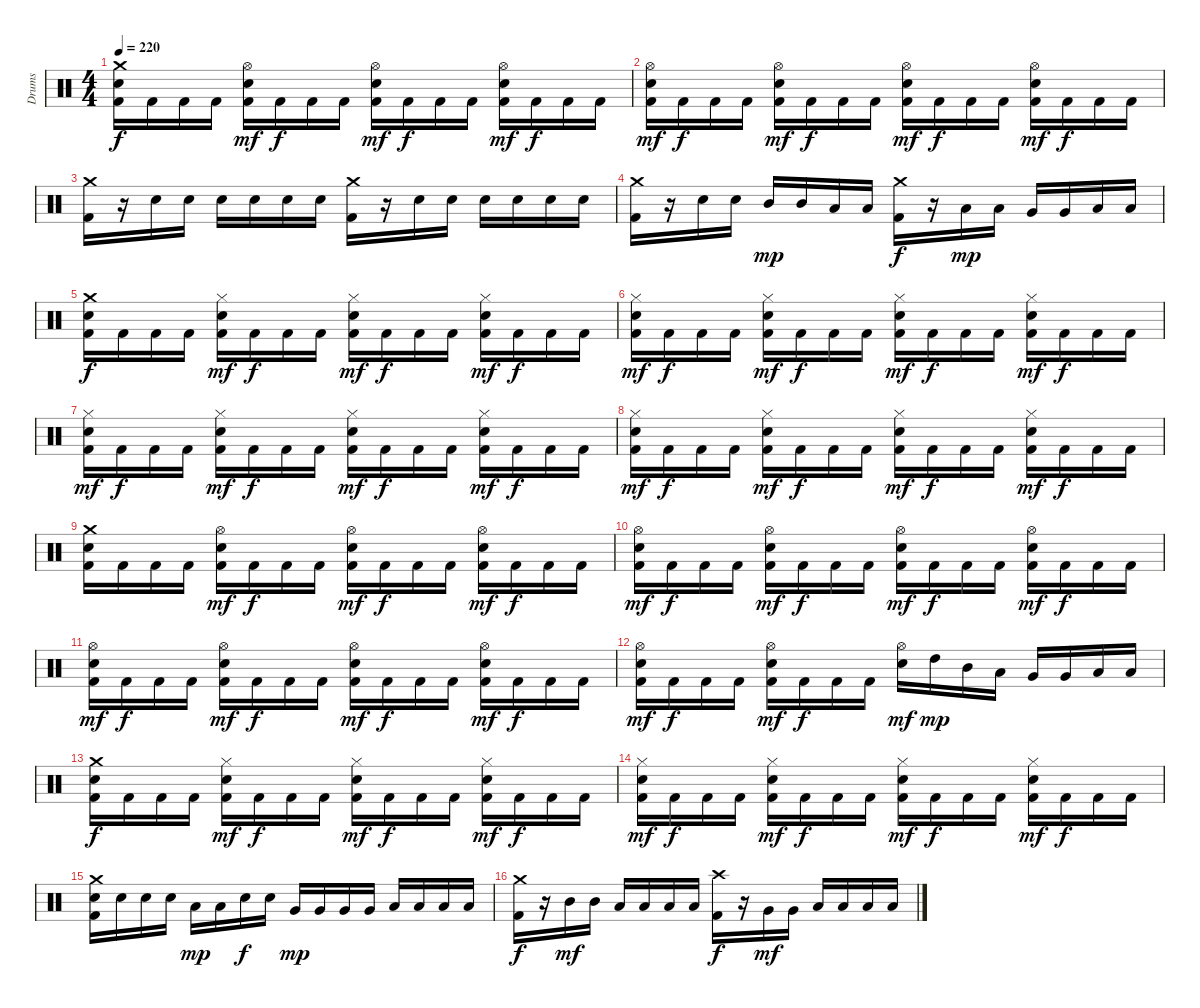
\track ("Drums" "Drums") {instrument percussion}
\staff {score}
\articulation defaults
\ts (4 4)
\tempo 220
\clef neutral
\ks c
("Crash medium (hit)" "Electric Snare (hit)" "Kick (hit) 2").16{dy f} "Kick (hit) 2".16 "Kick (hit) 2".16 "Kick (hit) 2".16 ("Hi-Hat (open)" "Electric Snare (hit)" "Kick (hit) 2").16{dy mf} "Kick (hit) 2".16{dy f} "Kick (hit) 2".16 "Kick (hit) 2".16 ("Hi-Hat (open)" "Electric Snare (hit)" "Kick (hit) 2").16{dy mf} "Kick (hit) 2".16{dy f} "Kick (hit) 2".16 "Kick (hit) 2".16 ("Hi-Hat (open)" "Electric Snare (hit)" "Kick (hit) 2").16{dy mf} "Kick (hit) 2".16{dy f} "Kick (hit) 2".16 "Kick (hit) 2".16 |
("Hi-Hat (open)" "Electric Snare (hit)" "Kick (hit) 2").16{dy mf} "Kick (hit) 2".16{dy f} "Kick (hit) 2".16 "Kick (hit) 2".16 ("Hi-Hat (open)" "Electric Snare (hit)" "Kick (hit) 2").16{dy mf} "Kick (hit) 2".16{dy f} "Kick (hit) 2".16 "Kick (hit) 2".16 ("Hi-Hat (open)" "Electric Snare (hit)" "Kick (hit) 2").16{dy mf} "Kick (hit) 2".16{dy f} "Kick (hit) 2".16 "Kick (hit) 2".16 ("Hi-Hat (open)" "Electric Snare (hit)" "Kick (hit) 2").16{dy mf} "Kick (hit) 2".16{dy f} "Kick (hit) 2".16 "Kick (hit) 2".16 |
("Crash medium (hit)" "Kick (hit) 2").16 r.16 "Electric Snare (hit)".16 "Electric Snare (hit)".16 "Electric Snare (hit)".16 "Electric Snare (hit)".16 "Electric Snare (hit)".16 "Electric Snare (hit)".16 ("Crash medium (hit)" "Kick (hit) 2").16 r.16 "Electric Snare (hit)".16 "Electric Snare (hit)".16 "Electric Snare (hit)".16 "Electric Snare (hit)".16 "Electric Snare (hit)".16 "Electric Snare (hit)".16 |
("Crash medium (hit)" "Kick (hit) 2").16 r.16 "Electric Snare (hit)".16 "Electric Snare (hit)".16 "Mid Tom (hit)".16{dy mp} "Mid Tom (hit)".16 "Low Tom (hit)".16 "Low Tom (hit)".16 ("Crash medium (hit)" "Kick (hit) 2").16{dy f} r.16 "Low Tom (hit)".16{dy mp} "Low Tom (hit)".16 "Very Low Tom (hit)".16 "Very Low Tom (hit)".16 "Low Floor Tom (hit)".16 "Low Floor Tom (hit)".16 |
("Crash medium (hit)" "Electric Snare (hit)" "Kick (hit) 2").16{dy f} "Kick (hit) 2".16 "Kick (hit) 2".16 "Kick (hit) 2".16 ("Hi-Hat (closed)" "Electric Snare (hit)" "Kick (hit) 2").16{dy mf} "Kick (hit) 2".16{dy f} "Kick (hit) 2".16 "Kick (hit) 2".16 ("Hi-Hat (closed)" "Electric Snare (hit)" "Kick (hit) 2").16{dy mf} "Kick (hit) 2".16{dy f} "Kick (hit) 2".16 "Kick (hit) 2".16 ("Hi-Hat (closed)" "Electric Snare (hit)" "Kick (hit) 2").16{dy mf} "Kick (hit) 2".16{dy f} "Kick (hit) 2".16 "Kick (hit) 2".16 |
("Hi-Hat (closed)" "Electric Snare (hit)" "Kick (hit) 2").16{dy mf} "Kick (hit) 2".16{dy f} "Kick (hit) 2".16 "Kick (hit) 2".16 ("Hi-Hat (closed)" "Electric Snare (hit)" "Kick (hit) 2").16{dy mf} "Kick (hit) 2".16{dy f} "Kick (hit) 2".16 "Kick (hit) 2".16 ("Hi-Hat (closed)" "Electric Snare (hit)" "Kick (hit) 2").16{dy mf} "Kick (hit) 2".16{dy f} "Kick (hit) 2".16 "Kick (hit) 2".16 ("Hi-Hat (closed)" "Electric Snare (hit)" "Kick (hit) 2").16{dy mf} "Kick (hit) 2".16{dy f} "Kick (hit) 2".16 "Kick (hit) 2".16 |
("Hi-Hat (closed)" "Electric Snare (hit)" "Kick (hit) 2").16{dy mf} "Kick (hit) 2".16{dy f} "Kick (hit) 2".16 "Kick (hit) 2".16 ("Hi-Hat (closed)" "Electric Snare (hit)" "Kick (hit) 2").16{dy mf} "Kick (hit) 2".16{dy f} "Kick (hit) 2".16 "Kick (hit) 2".16 ("Hi-Hat (closed)" "Electric Snare (hit)" "Kick (hit) 2").16{dy mf} "Kick (hit) 2".16{dy f} "Kick (hit) 2".16 "Kick (hit) 2".16 ("Hi-Hat (closed)" "Electric Snare (hit)" "Kick (hit) 2").16{dy mf} "Kick (hit) 2".16{dy f} "Kick (hit) 2".16 "Kick (hit) 2".16 |
("Hi-Hat (closed)" "Electric Snare (hit)" "Kick (hit) 2").16{dy mf} "Kick (hit) 2".16{dy f} "Kick (hit) 2".16 "Kick (hit) 2".16 ("Hi-Hat (closed)" "Electric Snare (hit)" "Kick (hit) 2").16{dy mf} "Kick (hit) 2".16{dy f} "Kick (hit) 2".16 "Kick (hit) 2".16 ("Hi-Hat (closed)" "Electric Snare (hit)" "Kick (hit) 2").16{dy mf} "Kick (hit) 2".16{dy f} "Kick (hit) 2".16 "Kick (hit) 2".16 ("Hi-Hat (closed)" "Electric Snare (hit)" "Kick (hit) 2").16{dy mf} "Kick (hit) 2".16{dy f} "Kick (hit) 2".16 "Kick (hit) 2".16 |
("Crash medium (hit)" "Electric Snare (hit)" "Kick (hit) 2").16 "Kick (hit) 2".16 "Kick (hit) 2".16 "Kick (hit) 2".16 ("Hi-Hat (open)" "Electric Snare (hit)" "Kick (hit) 2").16{dy mf} "Kick (hit) 2".16{dy f} "Kick (hit) 2".16 "Kick (hit) 2".16 ("Hi-Hat (open)" "Electric Snare (hit)" "Kick (hit) 2").16{dy mf} "Kick (hit) 2".16{dy f} "Kick (hit) 2".16 "Kick (hit) 2".16 ("Hi-Hat (open)" "Electric Snare (hit)" "Kick (hit) 2").16{dy mf} "Kick (hit) 2".16{dy f} "Kick (hit) 2".16 "Kick (hit) 2".16 |
("Hi-Hat (open)" "Electric Snare (hit)" "Kick (hit) 2").16{dy mf} "Kick (hit) 2".16{dy f} "Kick (hit) 2".16 "Kick (hit) 2".16 ("Hi-Hat (open)" "Electric Snare (hit)" "Kick (hit) 2").16{dy mf} "Kick (hit) 2".16{dy f} "Kick (hit) 2".16 "Kick (hit) 2".16 ("Hi-Hat (open)" "Electric Snare (hit)" "Kick (hit) 2").16{dy mf} "Kick (hit) 2".16{dy f} "Kick (hit) 2".16 "Kick (hit) 2".16 ("Hi-Hat (open)" "Electric Snare (hit)" "Kick (hit) 2").16{dy mf} "Kick (hit) 2".16{dy f} "Kick (hit) 2".16 "Kick (hit) 2".16 |
("Hi-Hat (open)" "Electric Snare (hit)" "Kick (hit) 2").16{dy mf} "Kick (hit) 2".16{dy f} "Kick (hit) 2".16 "Kick (hit) 2".16 ("Hi-Hat (open)" "Electric Snare (hit)" "Kick (hit) 2").16{dy mf} "Kick (hit) 2".16{dy f} "Kick (hit) 2".16 "Kick (hit) 2".16 ("Hi-Hat (open)" "Electric Snare (hit)" "Kick (hit) 2").16{dy mf} "Kick (hit) 2".16{dy f} "Kick (hit) 2".16 "Kick (hit) 2".16 ("Hi-Hat (open)" "Electric Snare (hit)" "Kick (hit) 2").16{dy mf} "Kick (hit) 2".16{dy f} "Kick (hit) 2".16 "Kick (hit) 2".16 |
("Hi-Hat (open)" "Electric Snare (hit)" "Kick (hit) 2").16{dy mf} "Kick (hit) 2".16{dy f} "Kick (hit) 2".16 "Kick (hit) 2".16 ("Hi-Hat (open)" "Electric Snare (hit)" "Kick (hit) 2").16{dy mf} "Kick (hit) 2".16{dy f} "Kick (hit) 2".16 "Kick (hit) 2".16 ("Hi-Hat (open)" "Electric Snare (hit)").16{dy mf} "High Tom (hit)".16{dy mp} "Mid Tom (hit)".16 "Low Tom (hit)".16 "Very Low Tom (hit)".16 "Very Low Tom (hit)".16 "Low Floor Tom (hit)".16 "Low Floor Tom (hit)".16 |
("Crash medium (hit)" "Electric Snare (hit)" "Kick (hit) 2").16{dy f} "Kick (hit) 2".16 "Kick (hit) 2".16 "Kick (hit) 2".16 ("Hi-Hat (closed)" "Electric Snare (hit)" "Kick (hit) 2").16{dy mf} "Kick (hit) 2".16{dy f} "Kick (hit) 2".16 "Kick (hit) 2".16 ("Hi-Hat (closed)" "Electric Snare (hit)" "Kick (hit) 2").16{dy mf} "Kick (hit) 2".16{dy f} "Kick (hit) 2".16 "Kick (hit) 2".16 ("Hi-Hat (closed)" "Electric Snare (hit)" "Kick (hit) 2").16{dy mf} "Kick (hit) 2".16{dy f} "Kick (hit) 2".16 "Kick (hit) 2".16 |
("Hi-Hat (closed)" "Electric Snare (hit)" "Kick (hit) 2").16{dy mf} "Kick (hit) 2".16{dy f} "Kick (hit) 2".16 "Kick (hit) 2".16 ("Hi-Hat (closed)" "Electric Snare (hit)" "Kick (hit) 2").16{dy mf} "Kick (hit) 2".16{dy f} "Kick (hit) 2".16 "Kick (hit) 2".16 ("Hi-Hat (closed)" "Electric Snare (hit)" "Kick (hit) 2").16{dy mf} "Kick (hit) 2".16{dy f} "Kick (hit) 2".16 "Kick (hit) 2".16 ("Hi-Hat (closed)" "Electric Snare (hit)" "Kick (hit) 2").16{dy mf} "Kick (hit) 2".16{dy f} "Kick (hit) 2".16 "Kick (hit) 2".16 |
("Crash medium (hit)" "Electric Snare (hit)" "Kick (hit) 2").16 "Electric Snare (hit)".16 "Electric Snare (hit)".16 "Electric Snare (hit)".16 "Low Tom (hit)".16{dy mp} "Low Tom (hit)".16 "Electric Snare (hit)".16{dy f} "Electric Snare (hit)".16 "Very Low Tom (hit)".16{dy mp} "Very Low Tom (hit)".16 "Very Low Tom (hit)".16 "Very Low Tom (hit)".16 "Low Floor Tom (hit)".16 "Low Floor Tom (hit)".16 "Low Floor Tom (hit)".16 "Low Floor Tom (hit)".16 |
("Crash medium (hit)" "Kick (hit) 2").16{dy f} r.16 "Mid Tom (hit)".16{dy mf} "Mid Tom (hit)".16 "Low Tom (hit)".16 "Low Tom (hit)".16 "Low Tom (hit)".16 "Low Tom (hit)".16 ("Crash high (hit)" "Kick (hit) 2").16{dy f} r.16 "Very Low Tom (hit)".16{dy mf} "Very Low Tom (hit)".16 "Low Floor Tom (hit)".16 "Low Floor Tom (hit)".16 "Low Floor Tom (hit)".16 "Low Floor Tom (hit)".16
